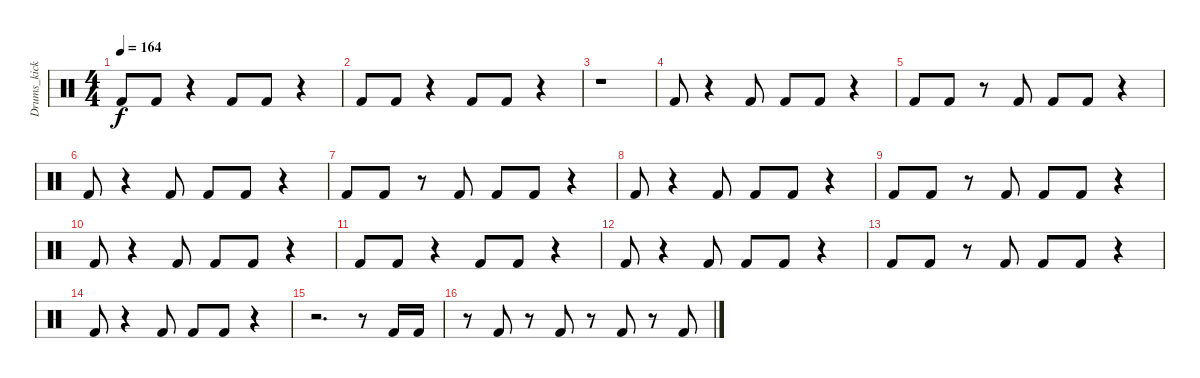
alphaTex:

\track ("Drums_kick" "Drums_kick") {instrument percussion}
\staff {score}
\articulation defaults
\ts (4 4)
\tempo 164
\clef neutral
\ks c "Kick (hit) 2".8{dy f} "Kick (hit) 2".8
r.4 "Kick (hit) 2".8 "Kick (hit) 2".8 r.4 |
"Kick (hit) 2".8 "Kick (hit) 2".8 r.4 "Kick (hit) 2".8 "Kick (hit) 2".8 r.4 |
r.1 |
"Kick (hit) 2".8 r.4 "Kick (hit) 2".8 "Kick (hit) 2".8 "Kick (hit) 2".8 r.4 |
"Kick (hit) 2".8 "Kick (hit) 2".8 r.8 "Kick (hit) 2".8 "Kick (hit) 2".8 "Kick (hit) 2".8 r.4 |
"Kick (hit) 2".8 r.4 "Kick (hit) 2".8 "Kick (hit) 2".8 "Kick (hit) 2".8 r.4 |
"Kick (hit) 2".8 "Kick (hit) 2".8 r.8 "Kick (hit) 2".8 "Kick (hit) 2".8 "Kick (hit) 2".8 r.4 |
"Kick (hit) 2".8 r.4 "Kick (hit) 2".8 "Kick (hit) 2".8 "Kick (hit) 2".8 r.4 |
"Kick (hit) 2".8 "Kick (hit) 2".8 r.8 "Kick (hit) 2".8 "Kick (hit) 2".8 "Kick (hit) 2".8 r.4 |
"Kick (hit) 2".8 r.4 "Kick (hit) 2".8 "Kick (hit) 2".8 "Kick (hit) 2".8 r.4 |
"Kick (hit) 2".8 "Kick (hit) 2".8 r.4 "Kick (hit) 2".8 "Kick (hit) 2".8 r.4 |
"Kick (hit) 2".8 r.4 "Kick (hit) 2".8 "Kick (hit) 2".8 "Kick (hit) 2".8 r.4 |
"Kick (hit) 2".8 "Kick (hit) 2".8 r.8 "Kick (hit) 2".8 "Kick (hit) 2".8 "Kick (hit) 2".8 r.4 |
"Kick (hit) 2".8 r.4 "Kick (hit) 2".8 "Kick (hit) 2".8 "Kick (hit) 2".8 r.4 |
r.2{d} r.8 "Kick (hit) 2".16 "Kick (hit) 2".16 |
r.8 "Kick (hit) 2".8 r.8 "Kick (hit) 2".8 r.8 "Kick (hit) 2".8 r.8 "Kick (hit) 2".8
